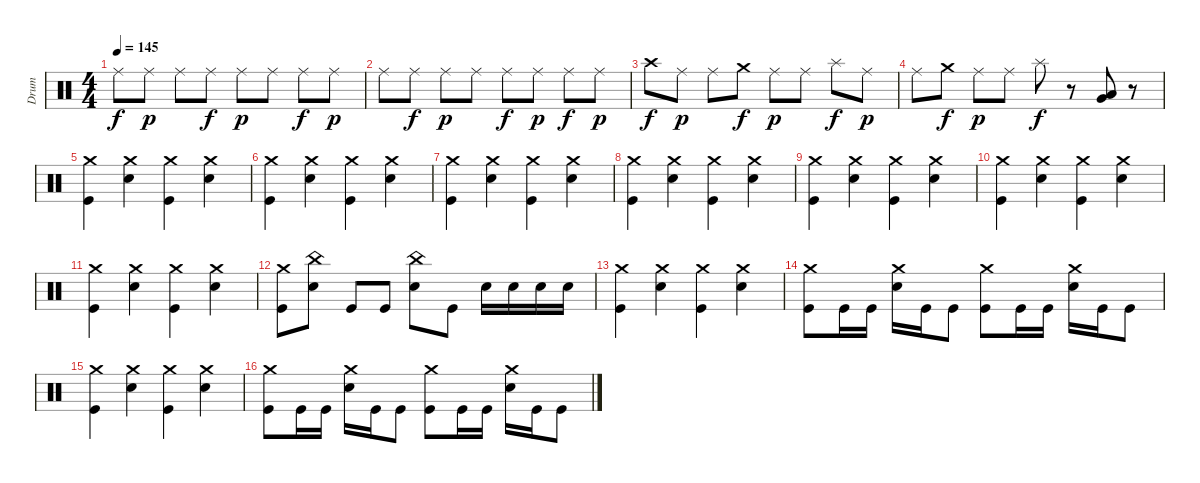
\track ("Drum" "Drum") {instrument percussion}
\staff {score}
\articulation defaults
\ts (4 4)
\tempo 145
\clef neutral
\ks c "Ride (middle)".8{dy f} "Ride (middle)".8{dy p} "Ride (middle)".8 "Ride (middle)".8{dy f} "Ride (middle)".8{dy p} "Ride (middle)".8 "Ride (middle)".8{dy f} "Ride (middle)".8{dy p}
|
"Ride (middle)".8 "Ride (middle)".8{dy f} "Ride (middle)".8{dy p} "Ride (middle)".8 "Ride (middle)".8{dy f} "Ride (middle)".8{dy p} "Ride (middle)".8{dy f} "Ride (middle)".8{dy p} |
"Crash high (hit)".8{dy f} "Ride (middle)".8{dy p} "Ride (middle)".8 "Crash medium (hit)".8{dy f} "Ride (middle)".8{dy p} "Ride (middle)".8 "Splash (hit)".8{dy f} "Ride (middle)".8{dy p} |
"Ride (middle)".8 "Crash medium (hit)".8{dy f} "Ride (middle)".8{dy p} "Ride (middle)".8 "Splash (hit)".8{dy f} r.8 ("Very Low Tom (hit)" "Low Floor Tom (hit)").8 r.8 |
("Kick (hit)" "Crash medium (hit)").4 ("Electric Snare (hit)" "Crash medium (hit)").4 ("Kick (hit)" "Crash medium (hit)").4 ("Electric Snare (hit)" "Crash medium (hit)").4 |
("Kick (hit)" "Crash medium (hit)").4 ("Electric Snare (hit)" "Crash medium (hit)").4 ("Kick (hit)" "Crash medium (hit)").4 ("Electric Snare (hit)" "Crash medium (hit)").4 |
("Kick (hit)" "Crash medium (hit)").4 ("Electric Snare (hit)" "Crash medium (hit)").4 ("Kick (hit)" "Crash medium (hit)").4 ("Electric Snare (hit)" "Crash medium (hit)").4 |
("Kick (hit)" "Crash medium (hit)").4 ("Electric Snare (hit)" "Crash medium (hit)").4 ("Kick (hit)" "Crash medium (hit)").4 ("Electric Snare (hit)" "Crash medium (hit)").4 |
("Kick (hit)" "Crash medium (hit)").4 ("Electric Snare (hit)" "Crash medium (hit)").4 ("Kick (hit)" "Crash medium (hit)").4 ("Electric Snare (hit)" "Crash medium (hit)").4 |
("Kick (hit)" "Crash medium (hit)").4 ("Electric Snare (hit)" "Crash medium (hit)").4 ("Kick (hit)" "Crash medium (hit)").4 ("Electric Snare (hit)" "Crash medium (hit)").4 |
("Kick (hit)" "Crash medium (hit)").4 ("Electric Snare (hit)" "Crash medium (hit)").4 ("Kick (hit)" "Crash medium (hit)").4 ("Electric Snare (hit)" "Crash medium (hit)").4 |
("Kick (hit)" "Crash medium (hit)").8 ("Electric Snare (hit)" "China (hit)").8 "Kick (hit)".8 "Kick (hit)".8 ("Electric Snare (hit)" "China (hit)").8 "Kick (hit)".8 "Electric Snare (hit)".16 "Electric Snare (hit)".16 "Electric Snare (hit)".16 "Electric Snare (hit)".16 |
("Kick (hit)" "Crash medium (hit)").4 ("Electric Snare (hit)" "Crash medium (hit)").4 ("Kick (hit)" "Crash medium (hit)").4 ("Electric Snare (hit)" "Crash medium (hit)").4 |
("Kick (hit)" "Crash medium (hit)").8 "Kick (hit)".16 "Kick (hit)".16 ("Electric Snare (hit)" "Crash medium (hit)").16 "Kick (hit)".16 "Kick (hit)".8 ("Kick (hit)" "Crash medium (hit)").8 "Kick (hit)".16 "Kick (hit)".16 ("Electric Snare (hit)" "Crash medium (hit)").16 "Kick (hit)".16 "Kick (hit)".8 |
("Kick (hit)" "Crash medium (hit)").4 ("Electric Snare (hit)" "Crash medium (hit)").4 ("Kick (hit)" "Crash medium (hit)").4 ("Electric Snare (hit)" "Crash medium (hit)").4 |
("Kick (hit)" "Crash medium (hit)").8 "Kick (hit)".16 "Kick (hit)".16 ("Electric Snare (hit)" "Crash medium (hit)").16 "Kick (hit)".16 "Kick (hit)".8 ("Kick (hit)" "Crash medium (hit)").8 "Kick (hit)".16 "Kick (hit)".16 ("Electric Snare (hit)" "Crash medium (hit)").16 "Kick (hit)".16 "Kick (hit)".8
